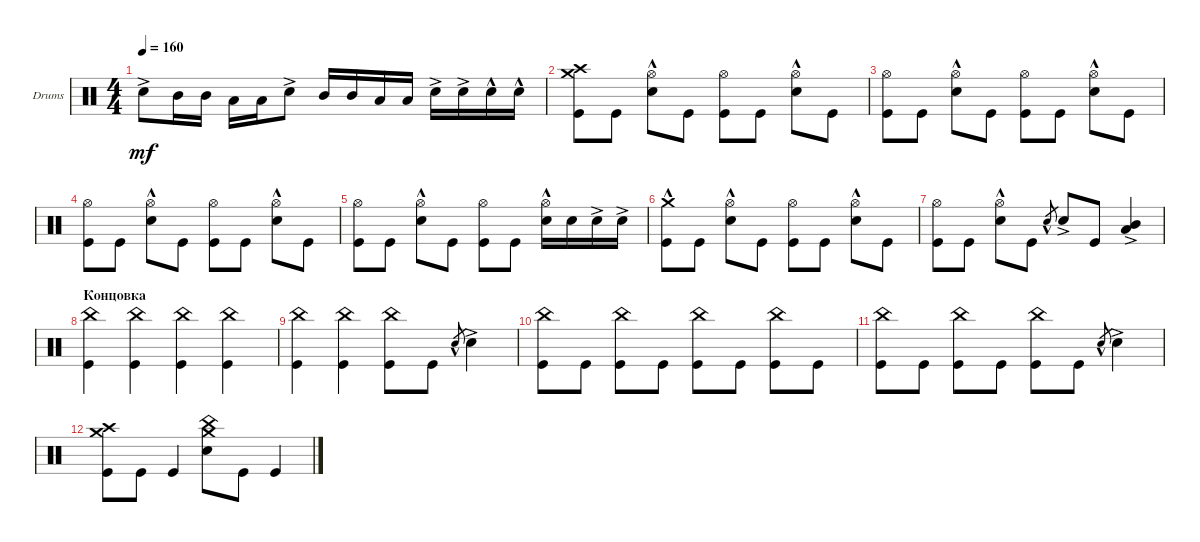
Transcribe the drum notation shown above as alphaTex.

\defaultSystemsLayout 4
\bracketExtendMode groupsimilarinstruments
\firstSystemTrackNameOrientation horizontal
\otherSystemsTrackNameOrientation horizontal
\track ("Drumkit" "Drums") {instrument percussion}
\staff {score}
\articulation defaults
\ts (4 4)
\tempo 160
\clef neutral
\ks c "Snare (hit) 2"{ac}.8{dy mf} "Mid Tom (hit)".16 "Mid Tom (hit)".16 "Low Tom (hit)".16 "Low Tom (hit)".16 "Snare (hit) 2"{ac}.8 "Mid Tom (hit)".16 "Mid Tom (hit)".16 "Low Tom (hit)".16 "Low Tom (hit)".16 "Snare (hit) 2"{ac}.16 "Snare (hit) 2"{ac}.16 "Snare (hit) 2"{hac}.16 "Snare (hit) 2"{hac}.16
|
("Kick (hit)" "Crash high (hit)" "Crash medium (hit)").8 "Kick (hit)".8 ("Snare (hit) 2"{hac} "Hi-Hat (open)").8 "Kick (hit)".8 ("Kick (hit)" "Hi-Hat (open)").8 "Kick (hit)".8 ("Snare (hit) 2"{hac} "Hi-Hat (open)").8 "Kick (hit)".8 |
("Kick (hit)" "Hi-Hat (open)").8 "Kick (hit)".8 ("Snare (hit) 2"{hac} "Hi-Hat (open)").8 "Kick (hit)".8 ("Kick (hit)" "Hi-Hat (open)").8 "Kick (hit)".8 ("Snare (hit) 2"{hac} "Hi-Hat (open)").8 "Kick (hit)".8 |
("Kick (hit)" "Hi-Hat (open)").8 "Kick (hit)".8 ("Snare (hit) 2"{hac} "Hi-Hat (open)").8 "Kick (hit)".8 ("Kick (hit)" "Hi-Hat (open)").8 "Kick (hit)".8 ("Snare (hit) 2"{hac} "Hi-Hat (open)").8 "Kick (hit)".8 |
("Kick (hit)" "Hi-Hat (open)").8 "Kick (hit)".8 ("Snare (hit) 2"{hac} "Hi-Hat (open)").8 "Kick (hit)".8 ("Kick (hit)" "Hi-Hat (open)").8 "Kick (hit)".8 ("Snare (hit) 2"{hac} "Hi-Hat (open)").16 "Snare (hit) 2".16 "Snare (hit) 2"{ac}.16 "Snare (hit) 2"{ac}.16 |
("Kick (hit)" "Crash medium (hit)"{hac}).8 "Kick (hit)".8 ("Snare (hit) 2"{hac} "Hi-Hat (open)").8 "Kick (hit)".8 ("Kick (hit)" "Hi-Hat (open)").8 "Kick (hit)".8 ("Snare (hit) 2"{hac} "Hi-Hat (open)").8 "Kick (hit)".8 |
("Kick (hit)" "Hi-Hat (open)").8 "Kick (hit)".8 ("Snare (hit) 2"{hac} "Hi-Hat (open)").8 "Kick (hit)".8 "Snare (hit) 2"{hac}.8{gr} "Snare (hit) 2"{ac}.8 "Kick (hit)".8 ("Low Tom (hit)"{ac} "Mid Tom (hit)"{ac}).4 |
\section ("" "Концовка")
("Kick (hit)" "China (hit)").4 ("Kick (hit)" "China (hit)").4 ("Kick (hit)" "China (hit)").4 ("Kick (hit)" "China (hit)").4 |
("Kick (hit)" "China (hit)").4 ("Kick (hit)" "China (hit)").4 ("Kick (hit)" "China (hit)").8 "Kick (hit)".8 "Snare (hit) 2"{hac}.8{gr} "Snare (hit) 2"{ac}.4 |
("Kick (hit)" "China (hit)").8 "Kick (hit)".8 ("Kick (hit)" "China (hit)").8 "Kick (hit)".8 ("Kick (hit)" "China (hit)").8 "Kick (hit)".8 ("Kick (hit)" "China (hit)").8 "Kick (hit)".8 |
("Kick (hit)" "China (hit)").8 "Kick (hit)".8 ("Kick (hit)" "China (hit)").8 "Kick (hit)".8 ("Kick (hit)" "China (hit)").8 "Kick (hit)".8 "Snare (hit) 2"{hac}.8{gr} "Snare (hit) 2"{ac}.4 |
("Kick (hit)" "Crash high (hit)" "Crash medium (hit)").8 "Kick (hit)".8 "Kick (hit)".4 ("Snare (hit) 2" "Crash medium (hit)" "China (hit)").8 "Kick (hit)".8 "Kick (hit)".4
